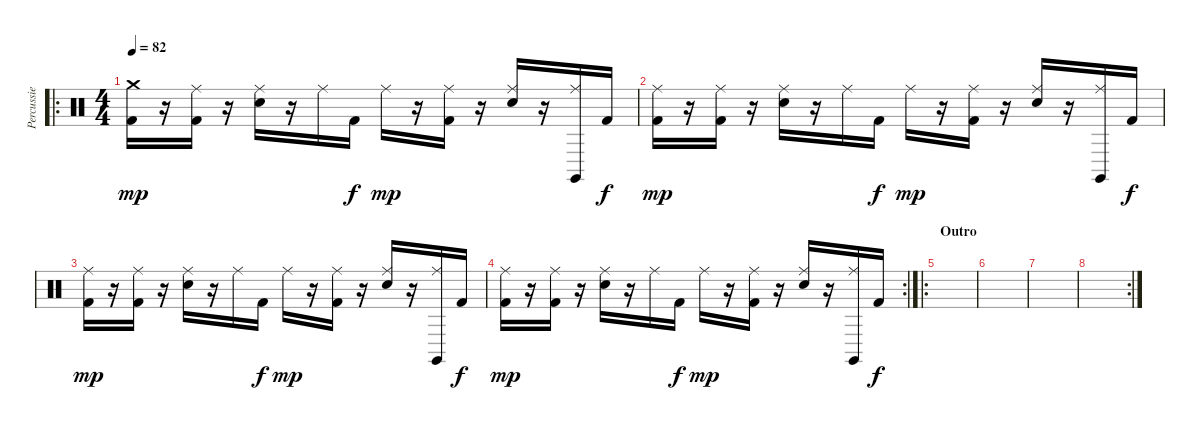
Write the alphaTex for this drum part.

\track ("Percussie" "Percussie") {instrument percussion}
\staff {score}
\articulation defaults
\ro
\ts (4 4)
\tempo 82
\clef neutral
\ks c
("Crash medium (hit)" "Kick (hit) 2").16{dy mp} r.16 ("Ride (middle)" "Kick (hit) 2").16 r.16 ("Ride (middle)" "Electric Snare (hit)").16 r.16 "Ride (middle)".16 "Kick (hit) 2".16{dy f} "Ride (middle)".16{dy mp} r.16 ("Ride (middle)" "Kick (hit) 2").16 r.16 ("Ride (middle)" "Electric Snare (hit)").16 r.16 ("Ride (middle)" "Claves (hit)").16 "Kick (hit) 2".16{dy f} |
("Ride (middle)" "Kick (hit) 2").16{dy mp} r.16 ("Ride (middle)" "Kick (hit) 2").16 r.16 ("Ride (middle)" "Electric Snare (hit)").16 r.16 "Ride (middle)".16 "Kick (hit) 2".16{dy f} "Ride (middle)".16{dy mp} r.16 ("Ride (middle)" "Kick (hit) 2").16 r.16 ("Ride (middle)" "Electric Snare (hit)").16 r.16 ("Ride (middle)" "Claves (hit)").16 "Kick (hit) 2".16{dy f} |
("Ride (middle)" "Kick (hit) 2").16{dy mp} r.16 ("Ride (middle)" "Kick (hit) 2").16 r.16 ("Ride (middle)" "Electric Snare (hit)").16 r.16 "Ride (middle)".16 "Kick (hit) 2".16{dy f} "Ride (middle)".16{dy mp} r.16 ("Ride (middle)" "Kick (hit) 2").16 r.16 ("Ride (middle)" "Electric Snare (hit)").16 r.16 ("Ride (middle)" "Claves (hit)").16 "Kick (hit) 2".16{dy f} |
\rc 2
("Ride (middle)" "Kick (hit) 2").16{dy mp} r.16 ("Ride (middle)" "Kick (hit) 2").16 r.16 ("Ride (middle)" "Electric Snare (hit)").16 r.16 "Ride (middle)".16 "Kick (hit) 2".16{dy f} "Ride (middle)".16{dy mp} r.16 ("Ride (middle)" "Kick (hit) 2").16 r.16 ("Ride (middle)" "Electric Snare (hit)").16 r.16 ("Ride (middle)" "Claves (hit)").16 "Kick (hit) 2".16{dy f} |
\ro
\section ("" "Outro")
|
|
|
\rc 2
